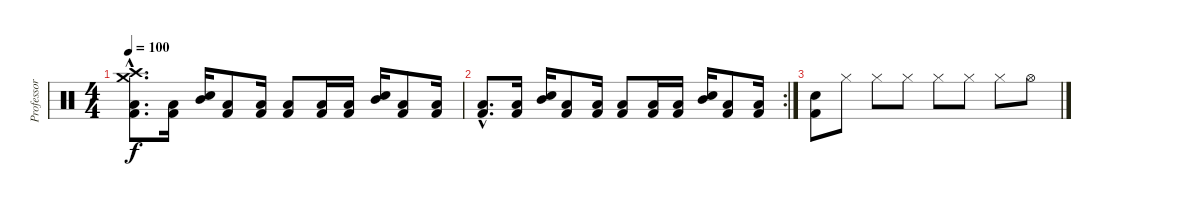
\track ("Professor" "Professor") {instrument percussion}
\staff {score}
\articulation defaults
\ts (4 4)
\tempo 100
\clef neutral
\ks c
("Kick (hit) 2"{hac} "Low Tom (hit)"{hac} "Crash high (hit)"{hac} "Crash medium (hit)"{hac}).8{d dy f} ("Kick (hit) 2" "Low Tom (hit)").16 ("Electric Snare (hit)" "Mid Tom (hit)").16 ("Kick (hit) 2" "Low Tom (hit)").8 ("Kick (hit) 2" "Low Tom (hit)").16 ("Kick (hit) 2" "Low Tom (hit)").8 ("Kick (hit) 2" "Low Tom (hit)").16 ("Kick (hit) 2" "Low Tom (hit)").16 ("Electric Snare (hit)" "Mid Tom (hit)").16 ("Kick (hit) 2" "Low Tom (hit)").8 ("Kick (hit) 2" "Low Tom (hit)").16 |
\rc 2
("Kick (hit) 2"{hac} "Low Tom (hit)"{hac}).8{d} ("Kick (hit) 2" "Low Tom (hit)").16 ("Electric Snare (hit)" "Mid Tom (hit)").16 ("Kick (hit) 2" "Low Tom (hit)").8 ("Kick (hit) 2" "Low Tom (hit)").16 ("Kick (hit) 2" "Low Tom (hit)").8 ("Kick (hit) 2" "Low Tom (hit)").16 ("Kick (hit) 2" "Low Tom (hit)").16 ("Electric Snare (hit)" "Mid Tom (hit)").16 ("Kick (hit) 2" "Low Tom (hit)").8 ("Kick (hit) 2" "Low Tom (hit)").16 |
("Kick (hit) 2" "Electric Snare (hit)").8 "Hi-Hat (closed)".8 "Hi-Hat (closed)".8 "Hi-Hat (closed)".8 "Hi-Hat (closed)".8 "Hi-Hat (closed)".8 "Hi-Hat (closed)".8 "Hi-Hat (open)".8
